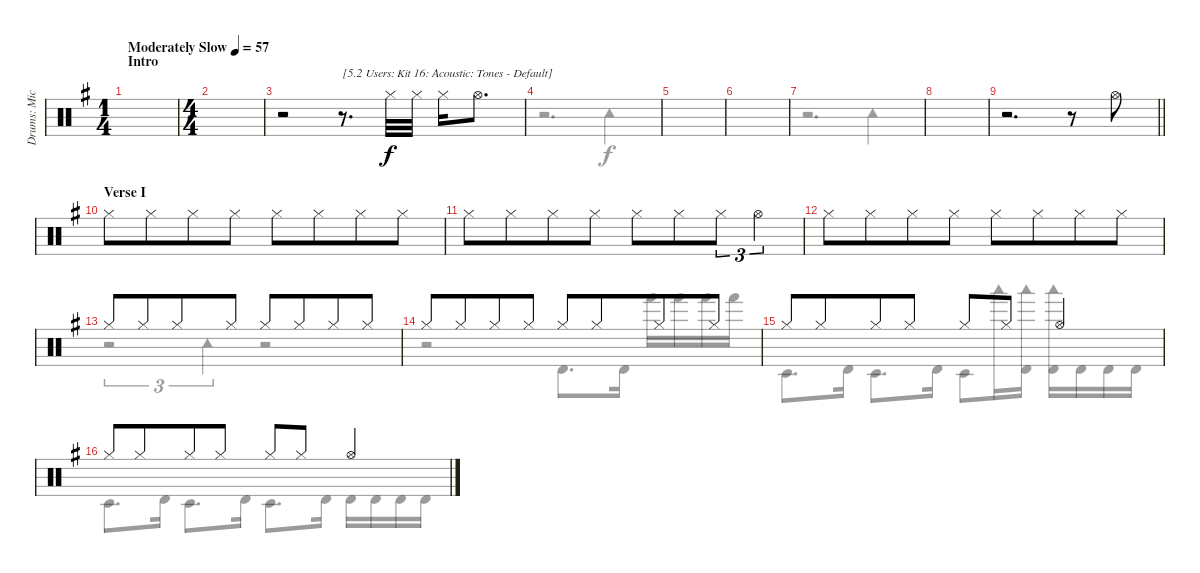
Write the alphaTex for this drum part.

\track ("Drums: Mick" "Drums: Mic") {instrument percussion}
\staff {score}
\articulation defaults
\voice
\ts (1 4)
\section ("" "Intro")
\tempo (57 "Moderately Slow")
\clef neutral
\ks g
|
\ts (4 4)
|
r.2 r.8{d txt "[5.2 Users: Kit 16: Acoustic: Tones - Default]"} "Hi-Hat (closed)".32 "Hi-Hat (closed)".32 "Hi-Hat (closed)".16 "Hi-Hat (open)".8{d} |
|
|
|
|
|
\barLineRight lightlight
r.2{d} r.8 "Hi-Hat (open)".8 |
\section ("" "Verse I")
"Hi-Hat (closed)".8 "Hi-Hat (closed)".8{beam merge} "Hi-Hat (closed)".8 "Hi-Hat (closed)".8 "Hi-Hat (closed)".8 "Hi-Hat (closed)".8{beam merge} "Hi-Hat (closed)".8 "Hi-Hat (closed)".8 |
"Hi-Hat (closed)".8 "Hi-Hat (closed)".8{beam merge} "Hi-Hat (closed)".8 "Hi-Hat (closed)".8 "Hi-Hat (closed)".8 "Hi-Hat (closed)".8{beam merge} "Hi-Hat (closed)".8{tu (3 2)} "Hi-Hat (open)".4{tu (3 2)} |
"Hi-Hat (closed)".8 "Hi-Hat (closed)".8{beam merge} "Hi-Hat (closed)".8 "Hi-Hat (closed)".8 "Hi-Hat (closed)".8 "Hi-Hat (closed)".8{beam merge} "Hi-Hat (closed)".8 "Hi-Hat (closed)".8 |
"Hi-Hat (closed)".8 "Hi-Hat (closed)".8{beam merge} "Hi-Hat (closed)".8 "Hi-Hat (closed)".8 "Hi-Hat (closed)".8 "Hi-Hat (closed)".8{beam merge} "Hi-Hat (closed)".8 "Hi-Hat (closed)".8 |
"Hi-Hat (closed)".8 "Hi-Hat (closed)".8{beam merge} "Hi-Hat (closed)".8 "Hi-Hat (closed)".8 "Hi-Hat (closed)".8 "Hi-Hat (closed)".8{beam merge} "Hi-Hat (closed)".8 "Hi-Hat (closed)".8 |
"Hi-Hat (closed)".8 "Hi-Hat (closed)".8{beam merge} "Hi-Hat (closed)".8 "Hi-Hat (closed)".8 "Hi-Hat (closed)".8 "Hi-Hat (closed)".8{beam merge} "Hi-Hat (open)".4 |
"Hi-Hat (closed)".8 "Hi-Hat (closed)".8{beam merge} "Hi-Hat (closed)".8 "Hi-Hat (closed)".8 "Hi-Hat (closed)".8 "Hi-Hat (closed)".8{beam merge} "Hi-Hat (open)".4
\voice
\clef neutral
\ottava regular
\simile none
\ks g
|
|
|
r.2{d} "Tambourine (hit)".4 |
|
|
r.2{d} "Tambourine (hit)".4 |
|
\barLineRight lightlight
|
|
|
|
r.2{tu (3 2)} "Tambourine (hit)".4{tu (3 2)} r.2 |
r.2 "Timbale high (hit)".8{d} "Timbale high (hit)".16 "Hand (hit)".16 "Hand (hit)".16 "Hand (hit)".16 "Hand (hit)".16 |
"Timbale low (hit)".8{d} "Timbale high (hit)".16 "Timbale low (hit)".8{d} "Timbale high (hit)".16 "Timbale low (hit)".8 "Woodblock low (hit)".16 ("Woodblock low (hit)" "Timbale high (hit)").16 ("Woodblock low (hit)" "Timbale high (hit)").16 "Timbale high (hit)".16 "Timbale high (hit)".16 "Timbale high (hit)".16 |
"Timbale low (hit)".8{d} "Timbale high (hit)".16 "Timbale low (hit)".8{d} "Timbale high (hit)".16 "Timbale low (hit)".8{d} "Timbale high (hit)".16 "Timbale high (hit)".16 "Timbale high (hit)".16 "Timbale high (hit)".16 "Timbale high (hit)".16
